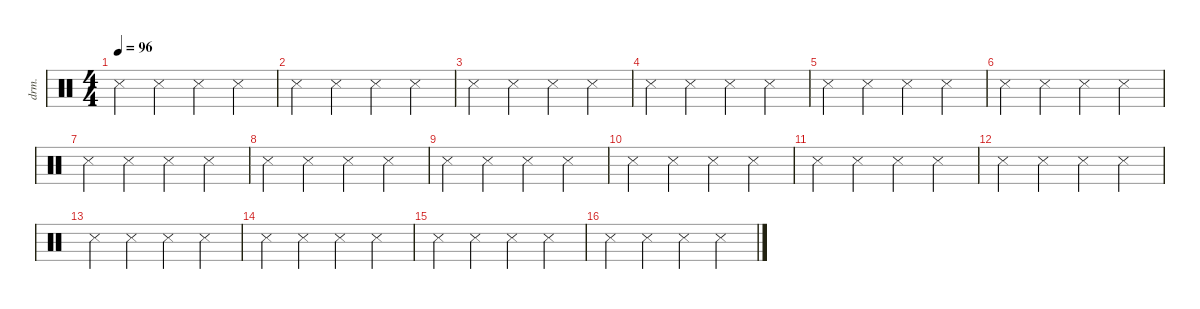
\defaultSystemsLayout 4
\hideDynamics
\bracketExtendMode nobrackets
\otherSystemsTrackNameOrientation horizontal
\track ("Drumkit" "drm.") {instrument percussion}
\staff {score}
\articulation defaults
\ts (4 4)
\tempo 96
\clef neutral
\ks c "Metronome (hit)".4{dy mf} "Metronome (hit)".4 "Metronome (hit)".4 "Metronome (hit)".4
|
"Metronome (hit)".4 "Metronome (hit)".4 "Metronome (hit)".4 "Metronome (hit)".4 |
"Metronome (hit)".4 "Metronome (hit)".4 "Metronome (hit)".4 "Metronome (hit)".4 |
"Metronome (hit)".4 "Metronome (hit)".4 "Metronome (hit)".4 "Metronome (hit)".4 |
"Metronome (hit)".4 "Metronome (hit)".4 "Metronome (hit)".4 "Metronome (hit)".4 |
"Metronome (hit)".4 "Metronome (hit)".4 "Metronome (hit)".4 "Metronome (hit)".4 |
"Metronome (hit)".4 "Metronome (hit)".4 "Metronome (hit)".4 "Metronome (hit)".4 |
"Metronome (hit)".4 "Metronome (hit)".4 "Metronome (hit)".4 "Metronome (hit)".4 |
"Metronome (hit)".4 "Metronome (hit)".4 "Metronome (hit)".4 "Metronome (hit)".4 |
"Metronome (hit)".4 "Metronome (hit)".4 "Metronome (hit)".4 "Metronome (hit)".4 |
"Metronome (hit)".4 "Metronome (hit)".4 "Metronome (hit)".4 "Metronome (hit)".4 |
"Metronome (hit)".4 "Metronome (hit)".4 "Metronome (hit)".4 "Metronome (hit)".4 |
"Metronome (hit)".4 "Metronome (hit)".4 "Metronome (hit)".4 "Metronome (hit)".4 |
"Metronome (hit)".4 "Metronome (hit)".4 "Metronome (hit)".4 "Metronome (hit)".4 |
"Metronome (hit)".4 "Metronome (hit)".4 "Metronome (hit)".4 "Metronome (hit)".4 |
"Metronome (hit)".4 "Metronome (hit)".4 "Metronome (hit)".4 "Metronome (hit)".4
